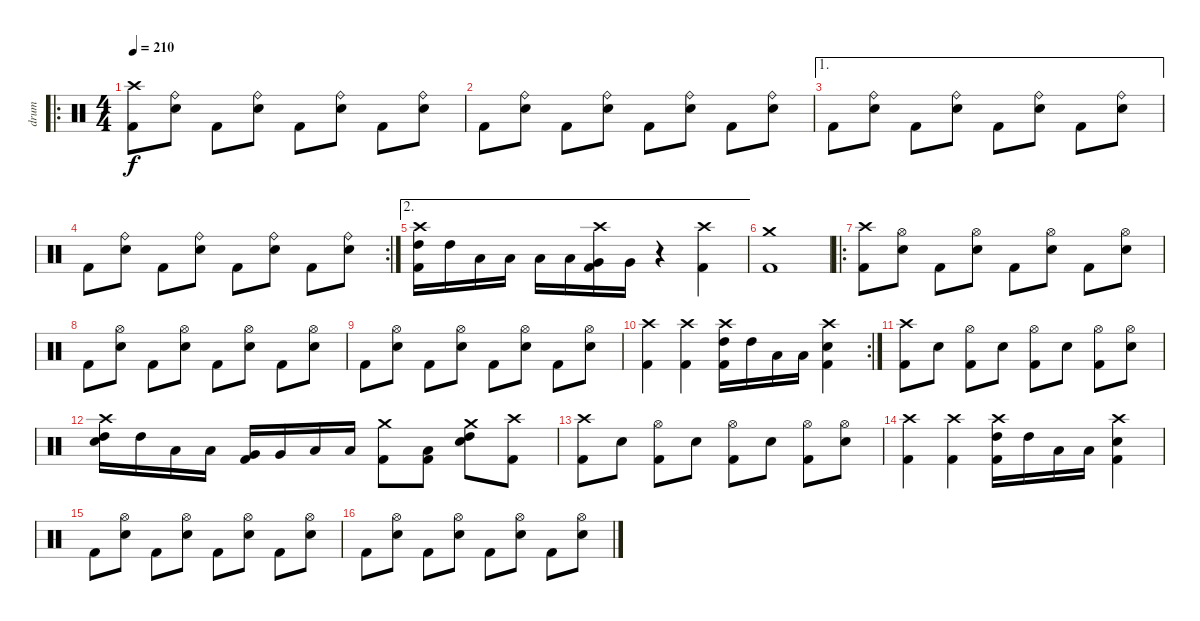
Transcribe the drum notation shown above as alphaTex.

\track ("drum" "drum") {instrument percussion}
\staff {score}
\articulation defaults
\ro
\ts (4 4)
\tempo 210
\clef neutral
\ks c
("Crash high (hit)" "Kick (hit) 2").8{dy f} ("Ride (bell)" "Electric Snare (hit)").8 "Kick (hit) 2".8 ("Ride (bell)" "Electric Snare (hit)").8 "Kick (hit) 2".8 ("Ride (bell)" "Electric Snare (hit)").8 "Kick (hit) 2".8 ("Ride (bell)" "Electric Snare (hit)").8 |
"Kick (hit) 2".8 ("Ride (bell)" "Electric Snare (hit)").8 "Kick (hit) 2".8 ("Ride (bell)" "Electric Snare (hit)").8 "Kick (hit) 2".8 ("Ride (bell)" "Electric Snare (hit)").8 "Kick (hit) 2".8 ("Ride (bell)" "Electric Snare (hit)").8 |
\ae 1 "Kick (hit) 2".8
("Ride (bell)" "Electric Snare (hit)").8 "Kick (hit) 2".8 ("Ride (bell)" "Electric Snare (hit)").8 "Kick (hit) 2".8 ("Ride (bell)" "Electric Snare (hit)").8 "Kick (hit) 2".8 ("Ride (bell)" "Electric Snare (hit)").8 |
\rc 2 "Kick (hit) 2".8
("Ride (bell)" "Electric Snare (hit)").8 "Kick (hit) 2".8 ("Ride (bell)" "Electric Snare (hit)").8 "Kick (hit) 2".8 ("Ride (bell)" "Electric Snare (hit)").8 "Kick (hit) 2".8 ("Ride (bell)" "Electric Snare (hit)").8 |
\ae 2
("Crash high (hit)" "High Tom (hit)" "Kick (hit) 2").16 "High Tom (hit)".16 "Low Tom (hit)".16 "Low Tom (hit)".16 "Low Tom (hit)".16 "Low Tom (hit)".16 ("Crash high (hit)" "Very Low Tom (hit)" "Kick (hit) 2").16 "Very Low Tom (hit)".16 r.4 ("Crash high (hit)" "Kick (hit) 2").4 |
("Crash medium (hit)" "Kick (hit) 2").1 |
\ro
("Crash high (hit)" "Kick (hit) 2").8 ("Hi-Hat (open)" "Electric Snare (hit)").8 "Kick (hit) 2".8 ("Hi-Hat (open)" "Electric Snare (hit)").8 "Kick (hit) 2".8 ("Hi-Hat (open)" "Electric Snare (hit)").8 "Kick (hit) 2".8 ("Hi-Hat (open)" "Electric Snare (hit)").8 |
"Kick (hit) 2".8 ("Hi-Hat (open)" "Electric Snare (hit)").8 "Kick (hit) 2".8 ("Hi-Hat (open)" "Electric Snare (hit)").8 "Kick (hit) 2".8 ("Hi-Hat (open)" "Electric Snare (hit)").8 "Kick (hit) 2".8 ("Hi-Hat (open)" "Electric Snare (hit)").8 |
"Kick (hit) 2".8 ("Hi-Hat (open)" "Electric Snare (hit)").8 "Kick (hit) 2".8 ("Hi-Hat (open)" "Electric Snare (hit)").8 "Kick (hit) 2".8 ("Hi-Hat (open)" "Electric Snare (hit)").8 "Kick (hit) 2".8 ("Hi-Hat (open)" "Electric Snare (hit)").8 |
\rc 2
("Crash high (hit)" "Kick (hit) 2").4 ("Crash high (hit)" "Kick (hit) 2").4 ("Crash high (hit)" "High Tom (hit)" "Kick (hit) 2").16 "High Tom (hit)".16 "Low Tom (hit)".16 "Low Tom (hit)".16 ("Crash high (hit)" "Electric Snare (hit)" "Kick (hit) 2").4 |
("Crash high (hit)" "Kick (hit) 2").8 "Electric Snare (hit)".8 ("Hi-Hat (open)" "Kick (hit) 2").8 "Electric Snare (hit)".8 ("Hi-Hat (open)" "Kick (hit) 2").8 "Electric Snare (hit)".8 ("Hi-Hat (open)" "Kick (hit) 2").8 ("Hi-Hat (open)" "Electric Snare (hit)").8 |
("Crash high (hit)" "High Tom (hit)" "Electric Snare (hit)").16 "High Tom (hit)".16 "Low Tom (hit)".16 "Low Tom (hit)".16 ("Very Low Tom (hit)" "Kick (hit) 2").16 "Very Low Tom (hit)".16 "Low Tom (hit)".16 "Low Tom (hit)".16 ("Crash medium (hit)" "Kick (hit) 2").8 ("Low Tom (hit)" "Kick (hit) 2").8 ("Crash medium (hit)" "High Tom (hit)" "Electric Snare (hit)").8 ("Crash high (hit)" "Kick (hit) 2").8 |
("Crash high (hit)" "Kick (hit) 2").8 "Electric Snare (hit)".8 ("Hi-Hat (open)" "Kick (hit) 2").8 "Electric Snare (hit)".8 ("Hi-Hat (open)" "Kick (hit) 2").8 "Electric Snare (hit)".8 ("Hi-Hat (open)" "Kick (hit) 2").8 ("Hi-Hat (open)" "Electric Snare (hit)").8 |
("Crash high (hit)" "Kick (hit) 2").4 ("Crash high (hit)" "Kick (hit) 2").4 ("Crash high (hit)" "High Tom (hit)" "Kick (hit) 2").16 "High Tom (hit)".16 "Low Tom (hit)".16 "Low Tom (hit)".16 ("Crash high (hit)" "Electric Snare (hit)" "Kick (hit) 2").4 |
"Kick (hit) 2".8 ("Hi-Hat (open)" "Electric Snare (hit)").8 "Kick (hit) 2".8 ("Hi-Hat (open)" "Electric Snare (hit)").8 "Kick (hit) 2".8 ("Hi-Hat (open)" "Electric Snare (hit)").8 "Kick (hit) 2".8 ("Hi-Hat (open)" "Electric Snare (hit)").8 |
"Kick (hit) 2".8 ("Hi-Hat (open)" "Electric Snare (hit)").8 "Kick (hit) 2".8 ("Hi-Hat (open)" "Electric Snare (hit)").8 "Kick (hit) 2".8 ("Hi-Hat (open)" "Electric Snare (hit)").8 "Kick (hit) 2".8 ("Hi-Hat (open)" "Electric Snare (hit)").8
